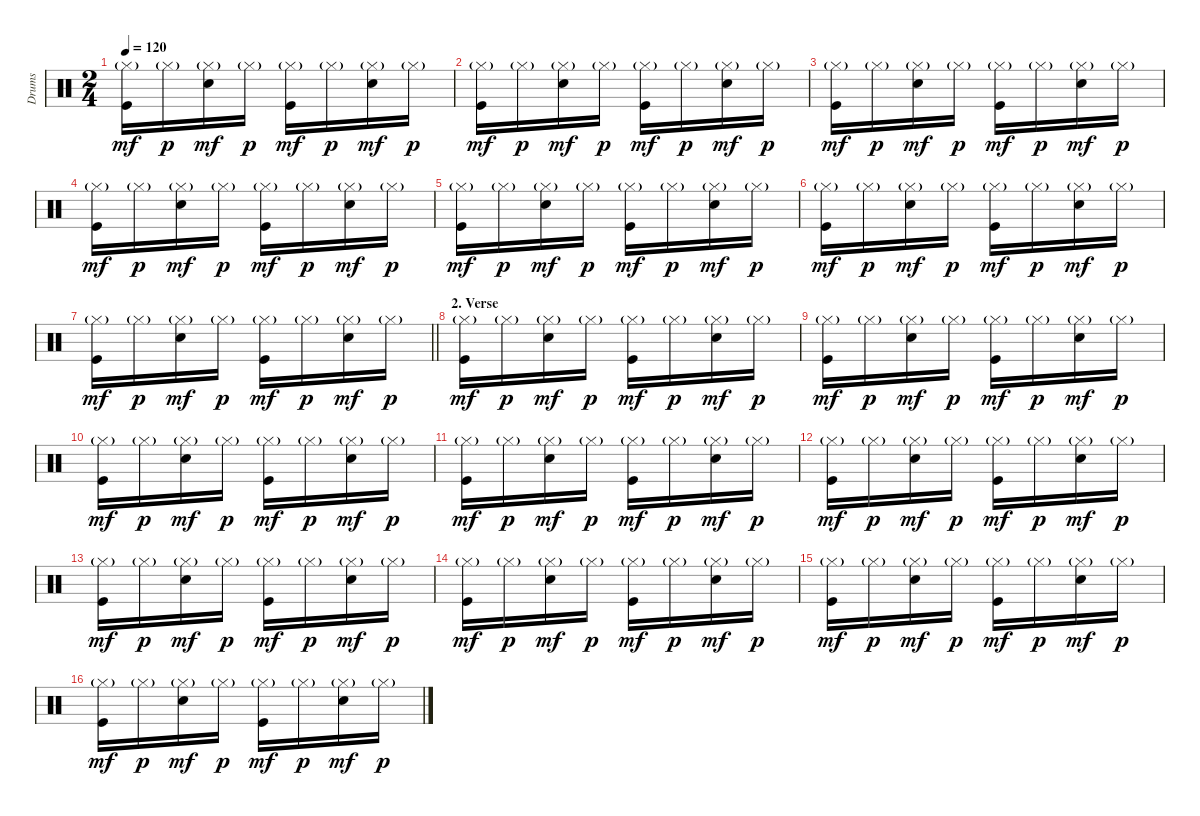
\track ("Drums" "Drums") {instrument percussion}
\staff {score}
\articulation defaults
\ts (2 4)
\tempo 120
\clef neutral
\ks c
("Hi-Hat (closed)"{g} "Kick (hit)").16{dy mf} "Hi-Hat (closed)"{g}.16{dy p} ("Hi-Hat (closed)"{g} "Snare (hit) 2").16{dy mf} "Hi-Hat (closed)"{g}.16{dy p} ("Hi-Hat (closed)"{g} "Kick (hit)").16{dy mf} "Hi-Hat (closed)"{g}.16{dy p} ("Hi-Hat (closed)"{g} "Snare (hit) 2").16{dy mf} "Hi-Hat (closed)"{g}.16{dy p} |
("Hi-Hat (closed)"{g} "Kick (hit)").16{dy mf} "Hi-Hat (closed)"{g}.16{dy p} ("Hi-Hat (closed)"{g} "Snare (hit) 2").16{dy mf} "Hi-Hat (closed)"{g}.16{dy p} ("Hi-Hat (closed)"{g} "Kick (hit)").16{dy mf} "Hi-Hat (closed)"{g}.16{dy p} ("Hi-Hat (closed)"{g} "Snare (hit) 2").16{dy mf} "Hi-Hat (closed)"{g}.16{dy p} |
("Hi-Hat (closed)"{g} "Kick (hit)").16{dy mf} "Hi-Hat (closed)"{g}.16{dy p} ("Hi-Hat (closed)"{g} "Snare (hit) 2").16{dy mf} "Hi-Hat (closed)"{g}.16{dy p} ("Hi-Hat (closed)"{g} "Kick (hit)").16{dy mf} "Hi-Hat (closed)"{g}.16{dy p} ("Hi-Hat (closed)"{g} "Snare (hit) 2").16{dy mf} "Hi-Hat (closed)"{g}.16{dy p} |
("Hi-Hat (closed)"{g} "Kick (hit)").16{dy mf} "Hi-Hat (closed)"{g}.16{dy p} ("Hi-Hat (closed)"{g} "Snare (hit) 2").16{dy mf} "Hi-Hat (closed)"{g}.16{dy p} ("Hi-Hat (closed)"{g} "Kick (hit)").16{dy mf} "Hi-Hat (closed)"{g}.16{dy p} ("Hi-Hat (closed)"{g} "Snare (hit) 2").16{dy mf} "Hi-Hat (closed)"{g}.16{dy p} |
("Hi-Hat (closed)"{g} "Kick (hit)").16{dy mf} "Hi-Hat (closed)"{g}.16{dy p} ("Hi-Hat (closed)"{g} "Snare (hit) 2").16{dy mf} "Hi-Hat (closed)"{g}.16{dy p} ("Hi-Hat (closed)"{g} "Kick (hit)").16{dy mf} "Hi-Hat (closed)"{g}.16{dy p} ("Hi-Hat (closed)"{g} "Snare (hit) 2").16{dy mf} "Hi-Hat (closed)"{g}.16{dy p} |
("Hi-Hat (closed)"{g} "Kick (hit)").16{dy mf} "Hi-Hat (closed)"{g}.16{dy p} ("Hi-Hat (closed)"{g} "Snare (hit) 2").16{dy mf} "Hi-Hat (closed)"{g}.16{dy p} ("Hi-Hat (closed)"{g} "Kick (hit)").16{dy mf} "Hi-Hat (closed)"{g}.16{dy p} ("Hi-Hat (closed)"{g} "Snare (hit) 2").16{dy mf} "Hi-Hat (closed)"{g}.16{dy p} |
\barLineRight lightlight
("Hi-Hat (closed)"{g} "Kick (hit)").16{dy mf} "Hi-Hat (closed)"{g}.16{dy p} ("Hi-Hat (closed)"{g} "Snare (hit) 2").16{dy mf} "Hi-Hat (closed)"{g}.16{dy p} ("Hi-Hat (closed)"{g} "Kick (hit)").16{dy mf} "Hi-Hat (closed)"{g}.16{dy p} ("Hi-Hat (closed)"{g} "Snare (hit) 2").16{dy mf} "Hi-Hat (closed)"{g}.16{dy p} |
\section ("" "2. Verse")
("Hi-Hat (closed)"{g} "Kick (hit)").16{dy mf} "Hi-Hat (closed)"{g}.16{dy p} ("Hi-Hat (closed)"{g} "Snare (hit) 2").16{dy mf} "Hi-Hat (closed)"{g}.16{dy p} ("Hi-Hat (closed)"{g} "Kick (hit)").16{dy mf} "Hi-Hat (closed)"{g}.16{dy p} ("Hi-Hat (closed)"{g} "Snare (hit) 2").16{dy mf} "Hi-Hat (closed)"{g}.16{dy p} |
("Hi-Hat (closed)"{g} "Kick (hit)").16{dy mf} "Hi-Hat (closed)"{g}.16{dy p} ("Hi-Hat (closed)"{g} "Snare (hit) 2").16{dy mf} "Hi-Hat (closed)"{g}.16{dy p} ("Hi-Hat (closed)"{g} "Kick (hit)").16{dy mf} "Hi-Hat (closed)"{g}.16{dy p} ("Hi-Hat (closed)"{g} "Snare (hit) 2").16{dy mf} "Hi-Hat (closed)"{g}.16{dy p} |
("Hi-Hat (closed)"{g} "Kick (hit)").16{dy mf} "Hi-Hat (closed)"{g}.16{dy p} ("Hi-Hat (closed)"{g} "Snare (hit) 2").16{dy mf} "Hi-Hat (closed)"{g}.16{dy p} ("Hi-Hat (closed)"{g} "Kick (hit)").16{dy mf} "Hi-Hat (closed)"{g}.16{dy p} ("Hi-Hat (closed)"{g} "Snare (hit) 2").16{dy mf} "Hi-Hat (closed)"{g}.16{dy p} |
("Hi-Hat (closed)"{g} "Kick (hit)").16{dy mf} "Hi-Hat (closed)"{g}.16{dy p} ("Hi-Hat (closed)"{g} "Snare (hit) 2").16{dy mf} "Hi-Hat (closed)"{g}.16{dy p} ("Hi-Hat (closed)"{g} "Kick (hit)").16{dy mf} "Hi-Hat (closed)"{g}.16{dy p} ("Hi-Hat (closed)"{g} "Snare (hit) 2").16{dy mf} "Hi-Hat (closed)"{g}.16{dy p} |
("Hi-Hat (closed)"{g} "Kick (hit)").16{dy mf} "Hi-Hat (closed)"{g}.16{dy p} ("Hi-Hat (closed)"{g} "Snare (hit) 2").16{dy mf} "Hi-Hat (closed)"{g}.16{dy p} ("Hi-Hat (closed)"{g} "Kick (hit)").16{dy mf} "Hi-Hat (closed)"{g}.16{dy p} ("Hi-Hat (closed)"{g} "Snare (hit) 2").16{dy mf} "Hi-Hat (closed)"{g}.16{dy p} |
("Hi-Hat (closed)"{g} "Kick (hit)").16{dy mf} "Hi-Hat (closed)"{g}.16{dy p} ("Hi-Hat (closed)"{g} "Snare (hit) 2").16{dy mf} "Hi-Hat (closed)"{g}.16{dy p} ("Hi-Hat (closed)"{g} "Kick (hit)").16{dy mf} "Hi-Hat (closed)"{g}.16{dy p} ("Hi-Hat (closed)"{g} "Snare (hit) 2").16{dy mf} "Hi-Hat (closed)"{g}.16{dy p} |
("Hi-Hat (closed)"{g} "Kick (hit)").16{dy mf} "Hi-Hat (closed)"{g}.16{dy p} ("Hi-Hat (closed)"{g} "Snare (hit) 2").16{dy mf} "Hi-Hat (closed)"{g}.16{dy p} ("Hi-Hat (closed)"{g} "Kick (hit)").16{dy mf} "Hi-Hat (closed)"{g}.16{dy p} ("Hi-Hat (closed)"{g} "Snare (hit) 2").16{dy mf} "Hi-Hat (closed)"{g}.16{dy p} |
("Hi-Hat (closed)"{g} "Kick (hit)").16{dy mf} "Hi-Hat (closed)"{g}.16{dy p} ("Hi-Hat (closed)"{g} "Snare (hit) 2").16{dy mf} "Hi-Hat (closed)"{g}.16{dy p} ("Hi-Hat (closed)"{g} "Kick (hit)").16{dy mf} "Hi-Hat (closed)"{g}.16{dy p} ("Hi-Hat (closed)"{g} "Snare (hit) 2").16{dy mf} "Hi-Hat (closed)"{g}.16{dy p} |
("Hi-Hat (closed)"{g} "Kick (hit)").16{dy mf} "Hi-Hat (closed)"{g}.16{dy p} ("Hi-Hat (closed)"{g} "Snare (hit) 2").16{dy mf} "Hi-Hat (closed)"{g}.16{dy p} ("Hi-Hat (closed)"{g} "Kick (hit)").16{dy mf} "Hi-Hat (closed)"{g}.16{dy p} ("Hi-Hat (closed)"{g} "Snare (hit) 2").16{dy mf} "Hi-Hat (closed)"{g}.16{dy p}
